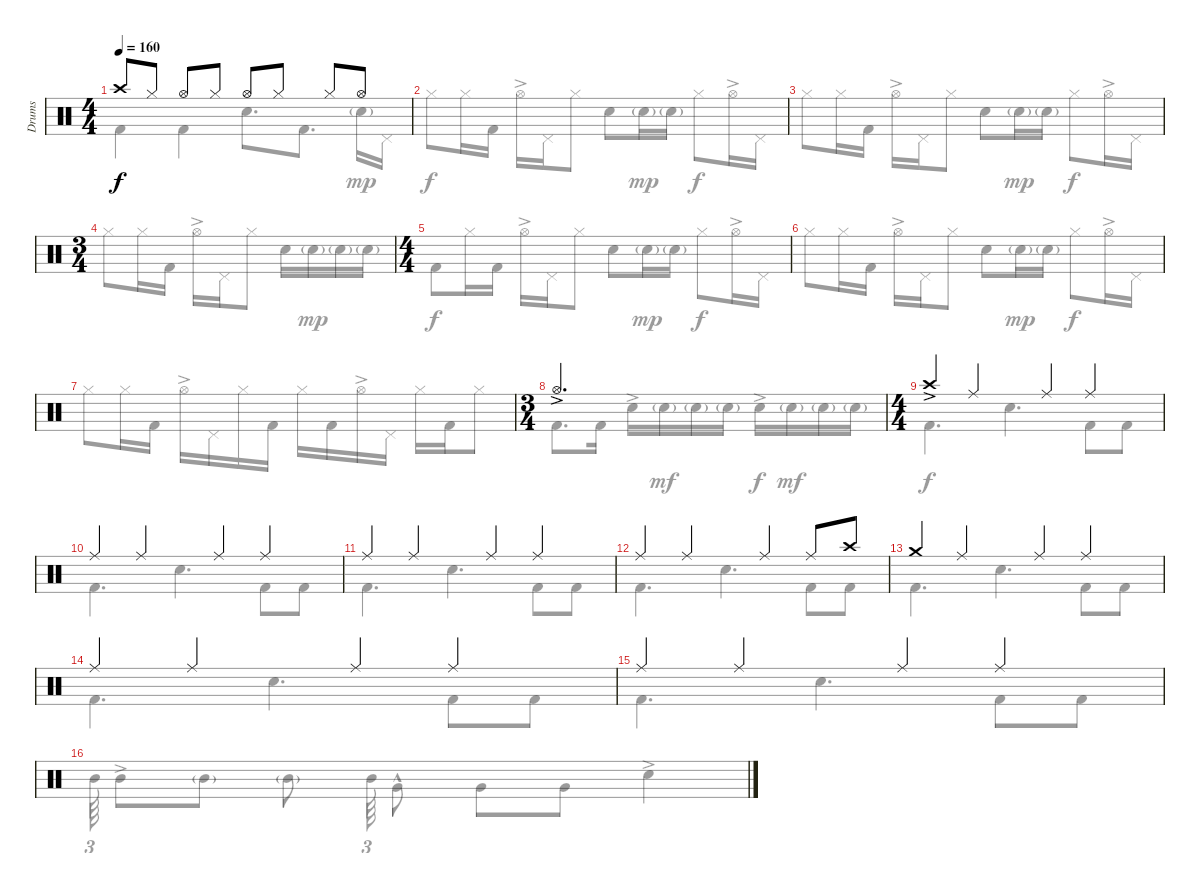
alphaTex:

\track ("Drums" "Drums") {instrument percussion}
\staff {score}
\articulation defaults
\voice
\ts (4 4)
\tempo 160
\clef neutral
\ks c "Crash high (hit)".8{dy f} "Hi-Hat (closed)".8 "Hi-Hat (open)".8 "Hi-Hat (closed)".8 "Hi-Hat (open)".8 "Hi-Hat (closed)".8 "Hi-Hat (closed)".8 "Hi-Hat (open)".8
|
|
|
\ts (3 4)
|
\ts (4 4)
|
|
|
\ts (3 4)
"Hi-Hat (open)"{ac}.2{d} |
\ts (4 4)
"Crash high (hit)"{ac}.4 "Ride (middle)".4 "Ride (middle)".4 "Ride (middle)".4 |
"Ride (middle)".4 "Ride (middle)".4 "Ride (middle)".4 "Ride (middle)".4 |
"Ride (middle)".4 "Ride (middle)".4 "Ride (middle)".4 "Ride (middle)".4 |
"Ride (middle)".4 "Ride (middle)".4 "Ride (middle)".4 "Ride (middle)".8 "Crash high (hit)".8 |
"Crash medium (hit)".4 "Ride (middle)".4 "Ride (middle)".4 "Ride (middle)".4 |
"Ride (middle)".4 "Ride (middle)".4 "Ride (middle)".4 "Ride (middle)".4 |
"Ride (middle)".4 "Ride (middle)".4 "Ride (middle)".4 "Ride (middle)".4 |
\voice
\clef neutral
\ottava regular
\simile none
\ks c "Kick (hit) 2".4{dy f} "Kick (hit) 2".4 "Snare (hit) 2".8{d} "Kick (hit) 2".8{d} "Snare (hit) 2"{g}.16{dy mp} "Pedal Hi-Hat (hit)".16
|
"Hi-Hat (closed)".8{dy f} "Hi-Hat (closed)".16 "Kick (hit) 2".16 "Hi-Hat (open)"{ac}.16 "Pedal Hi-Hat (hit)".16 "Hi-Hat (closed)".8 "Snare (hit) 2".8 "Snare (hit) 2"{g}.16{dy mp} "Snare (hit) 2"{g}.16 "Hi-Hat (closed)".8{dy f} "Hi-Hat (open)"{ac}.16 "Pedal Hi-Hat (hit)".16 |
"Hi-Hat (closed)".8 "Hi-Hat (closed)".16 "Kick (hit) 2".16 "Hi-Hat (open)"{ac}.16 "Pedal Hi-Hat (hit)".16 "Hi-Hat (closed)".8 "Snare (hit) 2".8 "Snare (hit) 2"{g}.16{dy mp} "Snare (hit) 2"{g}.16 "Hi-Hat (closed)".8{dy f} "Hi-Hat (open)"{ac}.16 "Pedal Hi-Hat (hit)".16 |
"Hi-Hat (closed)".8 "Hi-Hat (closed)".16 "Kick (hit) 2".16 "Hi-Hat (open)"{ac}.16 "Pedal Hi-Hat (hit)".16 "Hi-Hat (closed)".8 "Snare (hit) 2".16 "Snare (hit) 2"{g}.16{dy mp} "Snare (hit) 2"{g}.16 "Snare (hit) 2"{g}.16 |
"Kick (hit) 2".8{dy f} "Hi-Hat (closed)".16 "Kick (hit) 2".16 "Hi-Hat (open)"{ac}.16 "Pedal Hi-Hat (hit)".16 "Hi-Hat (closed)".8 "Snare (hit) 2".8 "Snare (hit) 2"{g}.16{dy mp} "Snare (hit) 2"{g}.16 "Hi-Hat (closed)".8{dy f} "Hi-Hat (open)"{ac}.16 "Pedal Hi-Hat (hit)".16 |
"Hi-Hat (closed)".8 "Hi-Hat (closed)".16 "Kick (hit) 2".16 "Hi-Hat (open)"{ac}.16 "Pedal Hi-Hat (hit)".16 "Hi-Hat (closed)".8 "Snare (hit) 2".8 "Snare (hit) 2"{g}.16{dy mp} "Snare (hit) 2"{g}.16 "Hi-Hat (closed)".8{dy f} "Hi-Hat (open)"{ac}.16 "Pedal Hi-Hat (hit)".16 |
"Hi-Hat (closed)".8 "Hi-Hat (closed)".16 "Kick (hit) 2".16 "Hi-Hat (open)"{ac}.16 "Pedal Hi-Hat (hit)".16 "Hi-Hat (closed)".16 "Kick (hit) 2".16 "Hi-Hat (closed)".16 "Kick (hit) 2".16 "Hi-Hat (open)"{ac}.16 "Pedal Hi-Hat (hit)".16 "Hi-Hat (closed)".16 "Kick (hit) 2".16 "Hi-Hat (closed)".8 |
"Kick (hit) 2".8{d} "Kick (hit) 2".16 "Snare (hit) 2"{ac}.16 "Snare (hit) 2"{g}.16{dy mf} "Snare (hit) 2"{g}.16 "Snare (hit) 2"{g}.16 "Snare (hit) 2"{ac}.16{dy f} "Snare (hit) 2"{g}.16{dy mf} "Snare (hit) 2"{g}.16 "Snare (hit) 2"{g}.16 |
"Kick (hit) 2".4{d dy f} "Snare (hit) 2".4{d} "Kick (hit) 2".8 "Kick (hit) 2".8 |
"Kick (hit) 2".4{d} "Snare (hit) 2".4{d} "Kick (hit) 2".8 "Kick (hit) 2".8 |
"Kick (hit) 2".4{d} "Snare (hit) 2".4{d} "Kick (hit) 2".8 "Kick (hit) 2".8 |
"Kick (hit) 2".4{d} "Snare (hit) 2".4{d} "Kick (hit) 2".8 "Kick (hit) 2".8 |
"Kick (hit) 2".4{d} "Snare (hit) 2".4{d} "Kick (hit) 2".8 "Kick (hit) 2".8 |
"Kick (hit) 2".4{d} "Snare (hit) 2".4{d} "Kick (hit) 2".8 "Kick (hit) 2".8 |
"Kick (hit) 2".4{d} "Snare (hit) 2".4{d} "Kick (hit) 2".8 "Kick (hit) 2".8 |
"Mid Tom (hit)".64{tu (3 2)} "Mid Tom (hit)"{ac}.8 "Mid Tom (hit)"{g}.8 "Mid Tom (hit)"{g}.8 "Mid Tom (hit)".64{tu (3 2)} "Very Low Tom (hit)"{hac}.8 "Very Low Tom (hit)".8 "Very Low Tom (hit)".8 "Snare (hit) 2"{ac}.4
